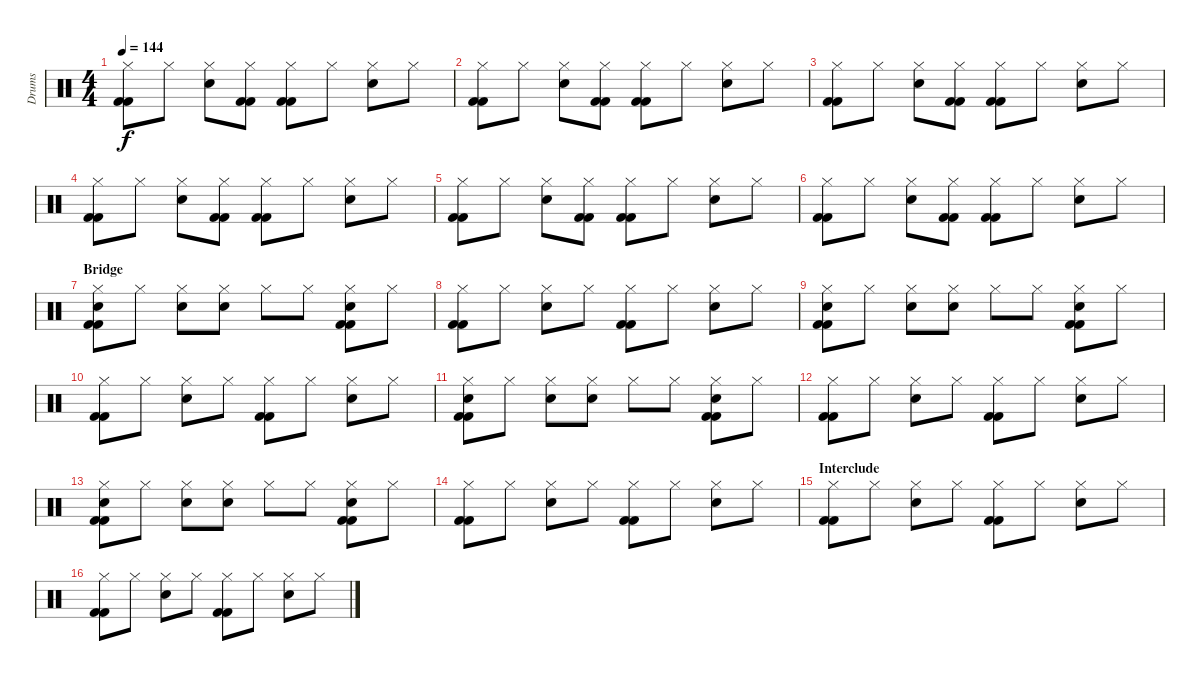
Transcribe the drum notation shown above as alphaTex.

\track ("Drums" "Drums") {instrument percussion}
\staff {score}
\articulation defaults
\ts (4 4)
\tempo 144
\clef neutral
\ks c
("Kick (hit) 2" "Kick (hit) 2" "Hi-Hat (closed)").8{dy f} "Hi-Hat (closed)".8 ("Snare (hit) 2" "Hi-Hat (closed)").8 ("Kick (hit) 2" "Kick (hit) 2" "Hi-Hat (closed)").8 ("Kick (hit) 2" "Kick (hit) 2" "Hi-Hat (closed)").8 "Hi-Hat (closed)".8 ("Snare (hit) 2" "Hi-Hat (closed)").8 "Hi-Hat (closed)".8 |
("Kick (hit) 2" "Kick (hit) 2" "Hi-Hat (closed)").8 "Hi-Hat (closed)".8 ("Snare (hit) 2" "Hi-Hat (closed)").8 ("Kick (hit) 2" "Kick (hit) 2" "Hi-Hat (closed)").8 ("Kick (hit) 2" "Kick (hit) 2" "Hi-Hat (closed)").8 "Hi-Hat (closed)".8 ("Snare (hit) 2" "Hi-Hat (closed)").8 "Hi-Hat (closed)".8 |
("Kick (hit) 2" "Kick (hit) 2" "Hi-Hat (closed)").8 "Hi-Hat (closed)".8 ("Snare (hit) 2" "Hi-Hat (closed)").8 ("Kick (hit) 2" "Kick (hit) 2" "Hi-Hat (closed)").8 ("Kick (hit) 2" "Kick (hit) 2" "Hi-Hat (closed)").8 "Hi-Hat (closed)".8 ("Snare (hit) 2" "Hi-Hat (closed)").8 "Hi-Hat (closed)".8 |
("Kick (hit) 2" "Kick (hit) 2" "Hi-Hat (closed)").8 "Hi-Hat (closed)".8 ("Snare (hit) 2" "Hi-Hat (closed)").8 ("Kick (hit) 2" "Kick (hit) 2" "Hi-Hat (closed)").8 ("Kick (hit) 2" "Kick (hit) 2" "Hi-Hat (closed)").8 "Hi-Hat (closed)".8 ("Snare (hit) 2" "Hi-Hat (closed)").8 "Hi-Hat (closed)".8 |
("Kick (hit) 2" "Kick (hit) 2" "Hi-Hat (closed)").8 "Hi-Hat (closed)".8 ("Snare (hit) 2" "Hi-Hat (closed)").8 ("Kick (hit) 2" "Kick (hit) 2" "Hi-Hat (closed)").8 ("Kick (hit) 2" "Kick (hit) 2" "Hi-Hat (closed)").8 "Hi-Hat (closed)".8 ("Snare (hit) 2" "Hi-Hat (closed)").8 "Hi-Hat (closed)".8 |
("Kick (hit) 2" "Kick (hit) 2" "Hi-Hat (closed)").8 "Hi-Hat (closed)".8 ("Snare (hit) 2" "Hi-Hat (closed)").8 ("Kick (hit) 2" "Kick (hit) 2" "Hi-Hat (closed)").8 ("Kick (hit) 2" "Kick (hit) 2" "Hi-Hat (closed)").8 "Hi-Hat (closed)".8 ("Snare (hit) 2" "Hi-Hat (closed)").8 "Hi-Hat (closed)".8 |
\section ("" "Bridge")
("Kick (hit) 2" "Kick (hit) 2" "Snare (hit) 2" "Hi-Hat (closed)").8 "Hi-Hat (closed)".8 ("Snare (hit) 2" "Hi-Hat (closed)").8 ("Snare (hit) 2" "Hi-Hat (closed)").8 "Hi-Hat (closed)".8 "Hi-Hat (closed)".8 ("Kick (hit) 2" "Kick (hit) 2" "Snare (hit) 2" "Hi-Hat (closed)").8 "Hi-Hat (closed)".8 |
("Kick (hit) 2" "Kick (hit) 2" "Hi-Hat (closed)").8 "Hi-Hat (closed)".8 ("Snare (hit) 2" "Hi-Hat (closed)").8 "Hi-Hat (closed)".8 ("Kick (hit) 2" "Kick (hit) 2" "Hi-Hat (closed)").8 "Hi-Hat (closed)".8 ("Snare (hit) 2" "Hi-Hat (closed)").8 "Hi-Hat (closed)".8 |
("Kick (hit) 2" "Kick (hit) 2" "Snare (hit) 2" "Hi-Hat (closed)").8 "Hi-Hat (closed)".8 ("Snare (hit) 2" "Hi-Hat (closed)").8 ("Snare (hit) 2" "Hi-Hat (closed)").8 "Hi-Hat (closed)".8 "Hi-Hat (closed)".8 ("Kick (hit) 2" "Kick (hit) 2" "Snare (hit) 2" "Hi-Hat (closed)").8 "Hi-Hat (closed)".8 |
("Kick (hit) 2" "Kick (hit) 2" "Hi-Hat (closed)").8 "Hi-Hat (closed)".8 ("Snare (hit) 2" "Hi-Hat (closed)").8 "Hi-Hat (closed)".8 ("Kick (hit) 2" "Kick (hit) 2" "Hi-Hat (closed)").8 "Hi-Hat (closed)".8 ("Snare (hit) 2" "Hi-Hat (closed)").8 "Hi-Hat (closed)".8 |
("Kick (hit) 2" "Kick (hit) 2" "Snare (hit) 2" "Hi-Hat (closed)").8 "Hi-Hat (closed)".8 ("Snare (hit) 2" "Hi-Hat (closed)").8 ("Snare (hit) 2" "Hi-Hat (closed)").8 "Hi-Hat (closed)".8 "Hi-Hat (closed)".8 ("Kick (hit) 2" "Kick (hit) 2" "Snare (hit) 2" "Hi-Hat (closed)").8 "Hi-Hat (closed)".8 |
("Kick (hit) 2" "Kick (hit) 2" "Hi-Hat (closed)").8 "Hi-Hat (closed)".8 ("Snare (hit) 2" "Hi-Hat (closed)").8 "Hi-Hat (closed)".8 ("Kick (hit) 2" "Kick (hit) 2" "Hi-Hat (closed)").8 "Hi-Hat (closed)".8 ("Snare (hit) 2" "Hi-Hat (closed)").8 "Hi-Hat (closed)".8 |
("Kick (hit) 2" "Kick (hit) 2" "Snare (hit) 2" "Hi-Hat (closed)").8 "Hi-Hat (closed)".8 ("Snare (hit) 2" "Hi-Hat (closed)").8 ("Snare (hit) 2" "Hi-Hat (closed)").8 "Hi-Hat (closed)".8 "Hi-Hat (closed)".8 ("Kick (hit) 2" "Kick (hit) 2" "Snare (hit) 2" "Hi-Hat (closed)").8 "Hi-Hat (closed)".8 |
("Kick (hit) 2" "Kick (hit) 2" "Hi-Hat (closed)").8 "Hi-Hat (closed)".8 ("Snare (hit) 2" "Hi-Hat (closed)").8 "Hi-Hat (closed)".8 ("Kick (hit) 2" "Kick (hit) 2" "Hi-Hat (closed)").8 "Hi-Hat (closed)".8 ("Snare (hit) 2" "Hi-Hat (closed)").8 "Hi-Hat (closed)".8 |
\section ("" "Interclude")
("Kick (hit) 2" "Kick (hit) 2" "Hi-Hat (closed)").8 "Hi-Hat (closed)".8 ("Snare (hit) 2" "Hi-Hat (closed)").8 "Hi-Hat (closed)".8 ("Kick (hit) 2" "Kick (hit) 2" "Hi-Hat (closed)").8 "Hi-Hat (closed)".8 ("Snare (hit) 2" "Hi-Hat (closed)").8 "Hi-Hat (closed)".8 |
("Kick (hit) 2" "Kick (hit) 2" "Hi-Hat (closed)").8 "Hi-Hat (closed)".8 ("Snare (hit) 2" "Hi-Hat (closed)").8 "Hi-Hat (closed)".8 ("Kick (hit) 2" "Kick (hit) 2" "Hi-Hat (closed)").8 "Hi-Hat (closed)".8 ("Snare (hit) 2" "Hi-Hat (closed)").8 "Hi-Hat (closed)".8
